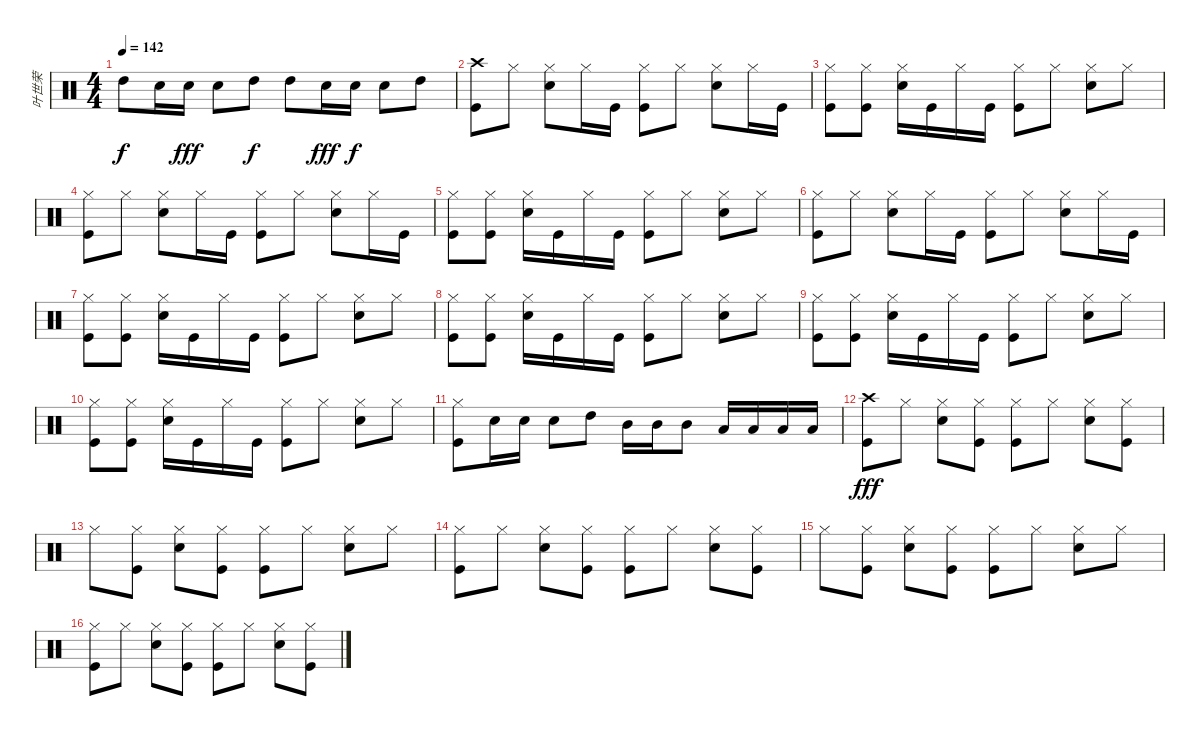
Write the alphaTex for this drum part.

\track ("叶世荣" "叶世荣") {instrument percussion}
\staff {score}
\articulation defaults
\ts (4 4)
\tempo 142
\clef neutral
\ks c "High Tom (hit)".8{dy f} "Snare (hit) 2".16 "Snare (hit) 2".16{dy fff} "Snare (hit) 2".8 "High Tom (hit)".8{dy f} "High Tom (hit)".8 "Snare (hit) 2".16{dy fff} "Snare (hit) 2".16{dy f} "Snare (hit) 2".8 "High Tom (hit)".8
|
("Crash high (hit)" "Kick (hit)").8 "Hi-Hat (closed)".8 ("Hi-Hat (closed)" "Snare (hit) 2").8 "Hi-Hat (closed)".16 "Kick (hit)".16 ("Hi-Hat (closed)" "Kick (hit)").8 "Hi-Hat (closed)".8 ("Hi-Hat (closed)" "Snare (hit) 2").8 "Hi-Hat (closed)".16 "Kick (hit)".16 |
("Hi-Hat (closed)" "Kick (hit)").8 ("Hi-Hat (closed)" "Kick (hit)").8 ("Hi-Hat (closed)" "Snare (hit) 2").16 "Kick (hit)".16 "Hi-Hat (closed)".16 "Kick (hit)".16 ("Hi-Hat (closed)" "Kick (hit)").8 "Hi-Hat (closed)".8 ("Hi-Hat (closed)" "Snare (hit) 2").8 "Hi-Hat (closed)".8 |
("Hi-Hat (closed)" "Kick (hit)").8 "Hi-Hat (closed)".8 ("Hi-Hat (closed)" "Snare (hit) 2").8 "Hi-Hat (closed)".16 "Kick (hit)".16 ("Hi-Hat (closed)" "Kick (hit)").8 "Hi-Hat (closed)".8 ("Hi-Hat (closed)" "Snare (hit) 2").8 "Hi-Hat (closed)".16 "Kick (hit)".16 |
("Hi-Hat (closed)" "Kick (hit)").8 ("Hi-Hat (closed)" "Kick (hit)").8 ("Hi-Hat (closed)" "Snare (hit) 2").16 "Kick (hit)".16 "Hi-Hat (closed)".16 "Kick (hit)".16 ("Hi-Hat (closed)" "Kick (hit)").8 "Hi-Hat (closed)".8 ("Hi-Hat (closed)" "Snare (hit) 2").8 "Hi-Hat (closed)".8 |
("Hi-Hat (closed)" "Kick (hit)").8 "Hi-Hat (closed)".8 ("Hi-Hat (closed)" "Snare (hit) 2").8 "Hi-Hat (closed)".16 "Kick (hit)".16 ("Hi-Hat (closed)" "Kick (hit)").8 "Hi-Hat (closed)".8 ("Hi-Hat (closed)" "Snare (hit) 2").8 "Hi-Hat (closed)".16 "Kick (hit)".16 |
("Hi-Hat (closed)" "Kick (hit)").8 ("Hi-Hat (closed)" "Kick (hit)").8 ("Hi-Hat (closed)" "Snare (hit) 2").16 "Kick (hit)".16 "Hi-Hat (closed)".16 "Kick (hit)".16 ("Hi-Hat (closed)" "Kick (hit)").8 "Hi-Hat (closed)".8 ("Hi-Hat (closed)" "Snare (hit) 2").8 "Hi-Hat (closed)".8 |
("Hi-Hat (closed)" "Kick (hit)").8 ("Hi-Hat (closed)" "Kick (hit)").8 ("Hi-Hat (closed)" "Snare (hit) 2").16 "Kick (hit)".16 "Hi-Hat (closed)".16 "Kick (hit)".16 ("Hi-Hat (closed)" "Kick (hit)").8 "Hi-Hat (closed)".8 ("Hi-Hat (closed)" "Snare (hit) 2").8 "Hi-Hat (closed)".8 |
("Hi-Hat (closed)" "Kick (hit)").8 ("Hi-Hat (closed)" "Kick (hit)").8 ("Hi-Hat (closed)" "Snare (hit) 2").16 "Kick (hit)".16 "Hi-Hat (closed)".16 "Kick (hit)".16 ("Hi-Hat (closed)" "Kick (hit)").8 "Hi-Hat (closed)".8 ("Hi-Hat (closed)" "Snare (hit) 2").8 "Hi-Hat (closed)".8 |
("Hi-Hat (closed)" "Kick (hit)").8 ("Hi-Hat (closed)" "Kick (hit)").8 ("Hi-Hat (closed)" "Snare (hit) 2").16 "Kick (hit)".16 "Hi-Hat (closed)".16 "Kick (hit)".16 ("Hi-Hat (closed)" "Kick (hit)").8 "Hi-Hat (closed)".8 ("Hi-Hat (closed)" "Snare (hit) 2").8 "Hi-Hat (closed)".8 |
("Hi-Hat (closed)" "Kick (hit)").8 "Snare (hit) 2".16 "Snare (hit) 2".16 "Snare (hit) 2".8 "High Tom (hit)".8 "Mid Tom (hit)".16 "Mid Tom (hit)".16 "Mid Tom (hit)".8 "Low Tom (hit)".16 "Low Tom (hit)".16 "Low Tom (hit)".16 "Low Tom (hit)".16 |
("Crash high (hit)" "Kick (hit)").8{dy fff} "Hi-Hat (closed)".8 ("Hi-Hat (closed)" "Snare (hit) 2").8 ("Hi-Hat (closed)" "Kick (hit)").8 ("Hi-Hat (closed)" "Kick (hit)").8 "Hi-Hat (closed)".8 ("Hi-Hat (closed)" "Snare (hit) 2").8 ("Hi-Hat (closed)" "Kick (hit)").8 |
"Hi-Hat (closed)".8 ("Hi-Hat (closed)" "Kick (hit)").8 ("Hi-Hat (closed)" "Snare (hit) 2").8 ("Hi-Hat (closed)" "Kick (hit)").8 ("Hi-Hat (closed)" "Kick (hit)").8 "Hi-Hat (closed)".8 ("Hi-Hat (closed)" "Snare (hit) 2").8 "Hi-Hat (closed)".8 |
("Hi-Hat (closed)" "Kick (hit)").8 "Hi-Hat (closed)".8 ("Hi-Hat (closed)" "Snare (hit) 2").8 ("Hi-Hat (closed)" "Kick (hit)").8 ("Hi-Hat (closed)" "Kick (hit)").8 "Hi-Hat (closed)".8 ("Hi-Hat (closed)" "Snare (hit) 2").8 ("Hi-Hat (closed)" "Kick (hit)").8 |
"Hi-Hat (closed)".8 ("Hi-Hat (closed)" "Kick (hit)").8 ("Hi-Hat (closed)" "Snare (hit) 2").8 ("Hi-Hat (closed)" "Kick (hit)").8 ("Hi-Hat (closed)" "Kick (hit)").8 "Hi-Hat (closed)".8 ("Hi-Hat (closed)" "Snare (hit) 2").8 "Hi-Hat (closed)".8 |
("Hi-Hat (closed)" "Kick (hit)").8 "Hi-Hat (closed)".8 ("Hi-Hat (closed)" "Snare (hit) 2").8 ("Hi-Hat (closed)" "Kick (hit)").8 ("Hi-Hat (closed)" "Kick (hit)").8 "Hi-Hat (closed)".8 ("Hi-Hat (closed)" "Snare (hit) 2").8 ("Hi-Hat (closed)" "Kick (hit)").8
